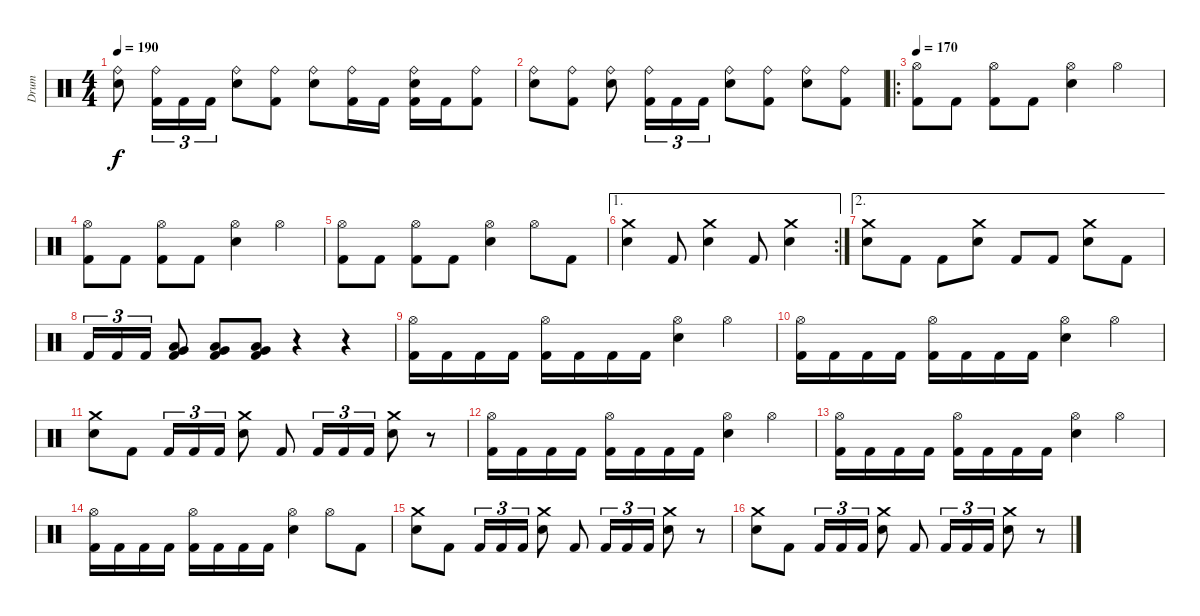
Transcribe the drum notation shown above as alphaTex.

\track ("Drum" "Drum") {instrument percussion}
\staff {score}
\articulation defaults
\ts (4 4)
\tempo 190
\clef neutral
\ks c
("Snare (hit) 2" "Ride (bell)").8{dy f} ("Kick (hit) 2" "Ride (bell)").16{tu (3 2)} "Kick (hit) 2".16{tu (3 2)} "Kick (hit) 2".16{tu (3 2)} ("Snare (hit) 2" "Ride (bell)").8 ("Kick (hit) 2" "Ride (bell)").8 ("Snare (hit) 2" "Ride (bell)").8 ("Kick (hit) 2" "Ride (bell)").16 "Kick (hit) 2".16 ("Kick (hit) 2" "Snare (hit) 2" "Ride (bell)").16 "Kick (hit) 2".16 ("Kick (hit) 2" "Ride (bell)").8 |
("Snare (hit) 2" "Ride (bell)").8 ("Kick (hit) 2" "Ride (bell)").8 ("Snare (hit) 2" "Ride (bell)").8 ("Kick (hit) 2" "Ride (bell)").16{tu (3 2)} "Kick (hit) 2".16{tu (3 2)} "Kick (hit) 2".16{tu (3 2)} ("Snare (hit) 2" "Ride (bell)").8 ("Kick (hit) 2" "Ride (bell)").8 ("Snare (hit) 2" "Ride (bell)").8 ("Kick (hit) 2" "Ride (bell)").8 |
\ro
\tempo 170
("Kick (hit) 2" "Hi-Hat (open)").8 "Kick (hit) 2".8 ("Kick (hit) 2" "Hi-Hat (open)").8 "Kick (hit) 2".8 ("Snare (hit) 2" "Hi-Hat (open)").4 "Hi-Hat (open)".4 |
("Kick (hit) 2" "Hi-Hat (open)").8 "Kick (hit) 2".8 ("Kick (hit) 2" "Hi-Hat (open)").8 "Kick (hit) 2".8 ("Snare (hit) 2" "Hi-Hat (open)").4 "Hi-Hat (open)".4 |
("Kick (hit) 2" "Hi-Hat (open)").8 "Kick (hit) 2".8 ("Kick (hit) 2" "Hi-Hat (open)").8 "Kick (hit) 2".8 ("Snare (hit) 2" "Hi-Hat (open)").4 "Hi-Hat (open)".8 "Kick (hit) 2".8 |
\ae 1
\rc 2
("Snare (hit) 2" "Crash medium (hit)").4 "Kick (hit) 2".8 ("Snare (hit) 2" "Crash medium (hit)").4 "Kick (hit) 2".8 ("Snare (hit) 2" "Crash medium (hit)").4 |
\ae 2
("Snare (hit) 2" "Crash medium (hit)").8 "Kick (hit) 2".8 "Kick (hit) 2".8 ("Snare (hit) 2" "Crash medium (hit)").8 "Kick (hit) 2".8 "Kick (hit) 2".8 ("Snare (hit) 2" "Crash medium (hit)").8 "Kick (hit) 2".8 |
"Kick (hit) 2".16{tu (3 2)} "Kick (hit) 2".16{tu (3 2)} "Kick (hit) 2".16{tu (3 2)} ("Kick (hit) 2" "Very Low Tom (hit)" "Low Tom (hit)").8 ("Kick (hit) 2" "Very Low Tom (hit)" "Low Tom (hit)").8 ("Kick (hit) 2" "Very Low Tom (hit)" "Low Tom (hit)").8 r.4 r.4 |
("Kick (hit) 2" "Hi-Hat (open)").16 "Kick (hit) 2".16 "Kick (hit) 2".16 "Kick (hit) 2".16 ("Kick (hit) 2" "Hi-Hat (open)").16 "Kick (hit) 2".16 "Kick (hit) 2".16 "Kick (hit) 2".16 ("Snare (hit) 2" "Hi-Hat (open)").4 "Hi-Hat (open)".4 |
("Kick (hit) 2" "Hi-Hat (open)").16 "Kick (hit) 2".16 "Kick (hit) 2".16 "Kick (hit) 2".16 ("Kick (hit) 2" "Hi-Hat (open)").16 "Kick (hit) 2".16 "Kick (hit) 2".16 "Kick (hit) 2".16 ("Snare (hit) 2" "Hi-Hat (open)").4 "Hi-Hat (open)".4 |
("Snare (hit) 2" "Crash medium (hit)").8 "Kick (hit) 2".8 "Kick (hit) 2".16{tu (3 2)} "Kick (hit) 2".16{tu (3 2)} "Kick (hit) 2".16{tu (3 2)} ("Snare (hit) 2" "Crash medium (hit)").8 "Kick (hit) 2".8 "Kick (hit) 2".16{tu (3 2)} "Kick (hit) 2".16{tu (3 2)} "Kick (hit) 2".16{tu (3 2)} ("Snare (hit) 2" "Crash medium (hit)").8 r.8 |
("Kick (hit) 2" "Hi-Hat (open)").16 "Kick (hit) 2".16 "Kick (hit) 2".16 "Kick (hit) 2".16 ("Kick (hit) 2" "Hi-Hat (open)").16 "Kick (hit) 2".16 "Kick (hit) 2".16 "Kick (hit) 2".16 ("Snare (hit) 2" "Hi-Hat (open)").4 "Hi-Hat (open)".4 |
("Kick (hit) 2" "Hi-Hat (open)").16 "Kick (hit) 2".16 "Kick (hit) 2".16 "Kick (hit) 2".16 ("Kick (hit) 2" "Hi-Hat (open)").16 "Kick (hit) 2".16 "Kick (hit) 2".16 "Kick (hit) 2".16 ("Snare (hit) 2" "Hi-Hat (open)").4 "Hi-Hat (open)".4 |
("Kick (hit) 2" "Hi-Hat (open)").16 "Kick (hit) 2".16 "Kick (hit) 2".16 "Kick (hit) 2".16 ("Kick (hit) 2" "Hi-Hat (open)").16 "Kick (hit) 2".16 "Kick (hit) 2".16 "Kick (hit) 2".16 ("Snare (hit) 2" "Hi-Hat (open)").4 "Hi-Hat (open)".8 "Kick (hit) 2".8 |
("Snare (hit) 2" "Crash medium (hit)").8 "Kick (hit) 2".8 "Kick (hit) 2".16{tu (3 2)} "Kick (hit) 2".16{tu (3 2)} "Kick (hit) 2".16{tu (3 2)} ("Snare (hit) 2" "Crash medium (hit)").8 "Kick (hit) 2".8 "Kick (hit) 2".16{tu (3 2)} "Kick (hit) 2".16{tu (3 2)} "Kick (hit) 2".16{tu (3 2)} ("Snare (hit) 2" "Crash medium (hit)").8 r.8 |
("Snare (hit) 2" "Crash medium (hit)").8 "Kick (hit) 2".8 "Kick (hit) 2".16{tu (3 2)} "Kick (hit) 2".16{tu (3 2)} "Kick (hit) 2".16{tu (3 2)} ("Snare (hit) 2" "Crash medium (hit)").8 "Kick (hit) 2".8 "Kick (hit) 2".16{tu (3 2)} "Kick (hit) 2".16{tu (3 2)} "Kick (hit) 2".16{tu (3 2)} ("Snare (hit) 2" "Crash medium (hit)").8 r.8
